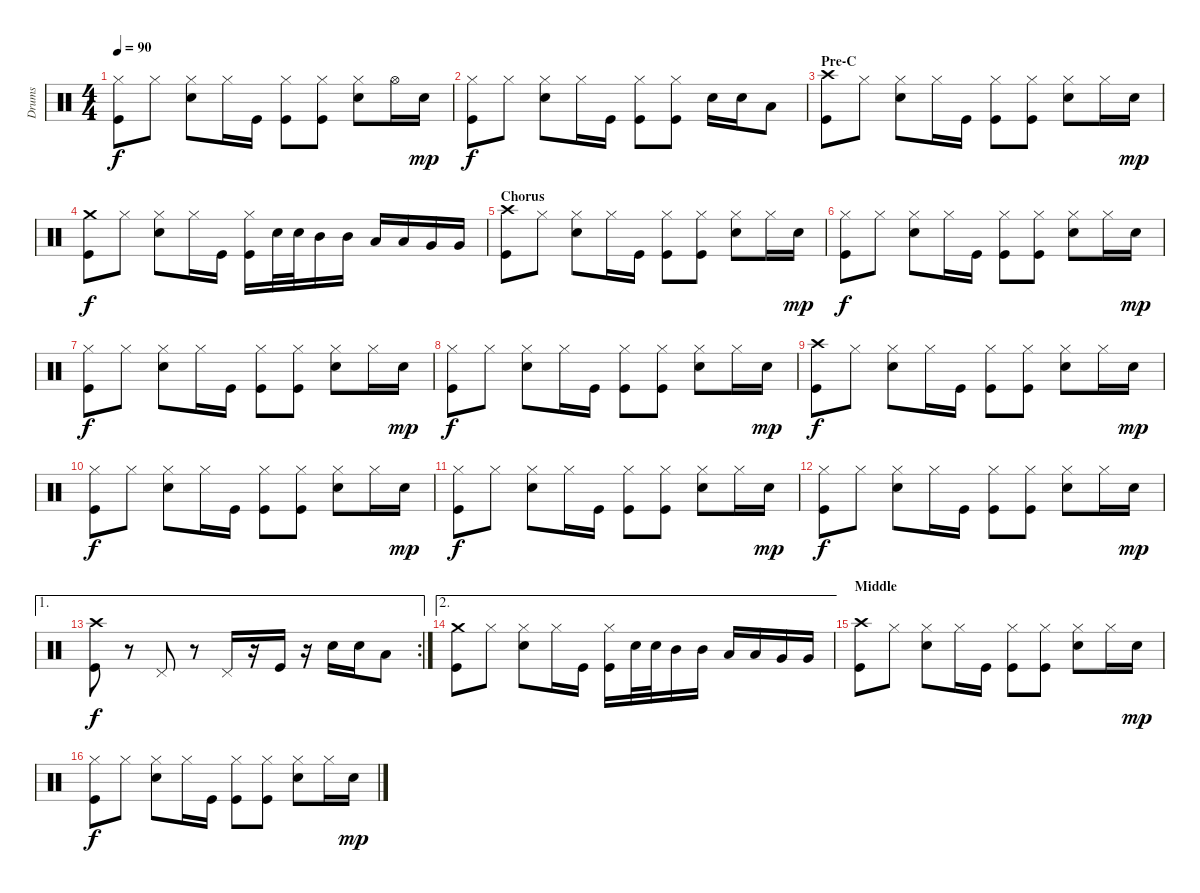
\track ("Drums" "Drums") {instrument percussion}
\staff {score}
\articulation defaults
\ts (4 4)
\tempo 90
\clef neutral
\ks c
("Hi-Hat (closed)" "Kick (hit)").8{dy f} "Hi-Hat (closed)".8 ("Hi-Hat (closed)" "Snare (hit) 2").8 "Hi-Hat (closed)".16 "Kick (hit)".16 ("Hi-Hat (closed)" "Kick (hit)").8 ("Hi-Hat (closed)" "Kick (hit)").8 ("Hi-Hat (closed)" "Snare (hit) 2").8 "Hi-Hat (open)".16 "Snare (hit) 2".16{dy mp} |
("Hi-Hat (closed)" "Kick (hit)").8{dy f} "Hi-Hat (closed)".8 ("Hi-Hat (closed)" "Snare (hit) 2").8 "Hi-Hat (closed)".16 "Kick (hit)".16 ("Hi-Hat (closed)" "Kick (hit)").8 ("Hi-Hat (closed)" "Kick (hit)").8 "Snare (hit) 2".16 "Snare (hit) 2".16 "Low Tom (hit)".8 |
\section ("" "Pre-C")
("Crash high (hit)" "Kick (hit)").8 "Hi-Hat (closed)".8 ("Hi-Hat (closed)" "Snare (hit) 2").8 "Hi-Hat (closed)".16 "Kick (hit)".16 ("Hi-Hat (closed)" "Kick (hit)").8 ("Hi-Hat (closed)" "Kick (hit)").8 ("Hi-Hat (closed)" "Snare (hit) 2").8 "Hi-Hat (closed)".16 "Snare (hit) 2".16{dy mp} |
("Crash medium (hit)" "Kick (hit)").8{dy f} "Hi-Hat (closed)".8 ("Hi-Hat (closed)" "Snare (hit) 2").8 "Hi-Hat (closed)".16 "Kick (hit)".16 ("Hi-Hat (closed)" "Kick (hit)").16 "Snare (hit) 2".32 "Snare (hit) 2".32 "Mid Tom (hit)".16 "Mid Tom (hit)".16 "Low Tom (hit)".16 "Low Tom (hit)".16 "Very Low Tom (hit)".16 "Very Low Tom (hit)".16 |
\section ("" "Chorus")
("Crash high (hit)" "Kick (hit)").8 "Hi-Hat (closed)".8 ("Hi-Hat (closed)" "Snare (hit) 2").8 "Hi-Hat (closed)".16 "Kick (hit)".16 ("Hi-Hat (closed)" "Kick (hit)").8 ("Hi-Hat (closed)" "Kick (hit)").8 ("Hi-Hat (closed)" "Snare (hit) 2").8 "Hi-Hat (closed)".16 "Snare (hit) 2".16{dy mp} |
("Hi-Hat (closed)" "Kick (hit)").8{dy f} "Hi-Hat (closed)".8 ("Hi-Hat (closed)" "Snare (hit) 2").8 "Hi-Hat (closed)".16 "Kick (hit)".16 ("Hi-Hat (closed)" "Kick (hit)").8 ("Hi-Hat (closed)" "Kick (hit)").8 ("Hi-Hat (closed)" "Snare (hit) 2").8 "Hi-Hat (closed)".16 "Snare (hit) 2".16{dy mp} |
("Hi-Hat (closed)" "Kick (hit)").8{dy f} "Hi-Hat (closed)".8 ("Hi-Hat (closed)" "Snare (hit) 2").8 "Hi-Hat (closed)".16 "Kick (hit)".16 ("Hi-Hat (closed)" "Kick (hit)").8 ("Hi-Hat (closed)" "Kick (hit)").8 ("Hi-Hat (closed)" "Snare (hit) 2").8 "Hi-Hat (closed)".16 "Snare (hit) 2".16{dy mp} |
("Hi-Hat (closed)" "Kick (hit)").8{dy f} "Hi-Hat (closed)".8 ("Hi-Hat (closed)" "Snare (hit) 2").8 "Hi-Hat (closed)".16 "Kick (hit)".16 ("Hi-Hat (closed)" "Kick (hit)").8 ("Hi-Hat (closed)" "Kick (hit)").8 ("Hi-Hat (closed)" "Snare (hit) 2").8 "Hi-Hat (closed)".16 "Snare (hit) 2".16{dy mp} |
("Crash high (hit)" "Kick (hit)").8{dy f} "Hi-Hat (closed)".8 ("Hi-Hat (closed)" "Snare (hit) 2").8 "Hi-Hat (closed)".16 "Kick (hit)".16 ("Hi-Hat (closed)" "Kick (hit)").8 ("Hi-Hat (closed)" "Kick (hit)").8 ("Hi-Hat (closed)" "Snare (hit) 2").8 "Hi-Hat (closed)".16 "Snare (hit) 2".16{dy mp} |
("Hi-Hat (closed)" "Kick (hit)").8{dy f} "Hi-Hat (closed)".8 ("Hi-Hat (closed)" "Snare (hit) 2").8 "Hi-Hat (closed)".16 "Kick (hit)".16 ("Hi-Hat (closed)" "Kick (hit)").8 ("Hi-Hat (closed)" "Kick (hit)").8 ("Hi-Hat (closed)" "Snare (hit) 2").8 "Hi-Hat (closed)".16 "Snare (hit) 2".16{dy mp} |
("Hi-Hat (closed)" "Kick (hit)").8{dy f} "Hi-Hat (closed)".8 ("Hi-Hat (closed)" "Snare (hit) 2").8 "Hi-Hat (closed)".16 "Kick (hit)".16 ("Hi-Hat (closed)" "Kick (hit)").8 ("Hi-Hat (closed)" "Kick (hit)").8 ("Hi-Hat (closed)" "Snare (hit) 2").8 "Hi-Hat (closed)".16 "Snare (hit) 2".16{dy mp} |
("Hi-Hat (closed)" "Kick (hit)").8{dy f} "Hi-Hat (closed)".8 ("Hi-Hat (closed)" "Snare (hit) 2").8 "Hi-Hat (closed)".16 "Kick (hit)".16 ("Hi-Hat (closed)" "Kick (hit)").8 ("Hi-Hat (closed)" "Kick (hit)").8 ("Hi-Hat (closed)" "Snare (hit) 2").8 "Hi-Hat (closed)".16 "Snare (hit) 2".16{dy mp} |
\ae 1
\rc 2
("Crash high (hit)" "Kick (hit)").8{dy f} r.8 "Pedal Hi-Hat (hit)".8 r.8 "Pedal Hi-Hat (hit)".16 r.16 "Kick (hit)".16 r.16 "Snare (hit) 2".16 "Snare (hit) 2".16 "Low Tom (hit)".8 |
\ae 2
("Crash medium (hit)" "Kick (hit)").8 "Hi-Hat (closed)".8 ("Hi-Hat (closed)" "Snare (hit) 2").8 "Hi-Hat (closed)".16 "Kick (hit)".16 ("Hi-Hat (closed)" "Kick (hit)").16 "Snare (hit) 2".32 "Snare (hit) 2".32 "Mid Tom (hit)".16 "Mid Tom (hit)".16 "Low Tom (hit)".16 "Low Tom (hit)".16 "Very Low Tom (hit)".16 "Very Low Tom (hit)".16 |
\section ("" "Middle")
("Crash high (hit)" "Kick (hit)").8 "Hi-Hat (closed)".8 ("Hi-Hat (closed)" "Snare (hit) 2").8 "Hi-Hat (closed)".16 "Kick (hit)".16 ("Hi-Hat (closed)" "Kick (hit)").8 ("Hi-Hat (closed)" "Kick (hit)").8 ("Hi-Hat (closed)" "Snare (hit) 2").8 "Hi-Hat (closed)".16 "Snare (hit) 2".16{dy mp} |
("Hi-Hat (closed)" "Kick (hit)").8{dy f} "Hi-Hat (closed)".8 ("Hi-Hat (closed)" "Snare (hit) 2").8 "Hi-Hat (closed)".16 "Kick (hit)".16 ("Hi-Hat (closed)" "Kick (hit)").8 ("Hi-Hat (closed)" "Kick (hit)").8 ("Hi-Hat (closed)" "Snare (hit) 2").8 "Hi-Hat (closed)".16 "Snare (hit) 2".16{dy mp}
